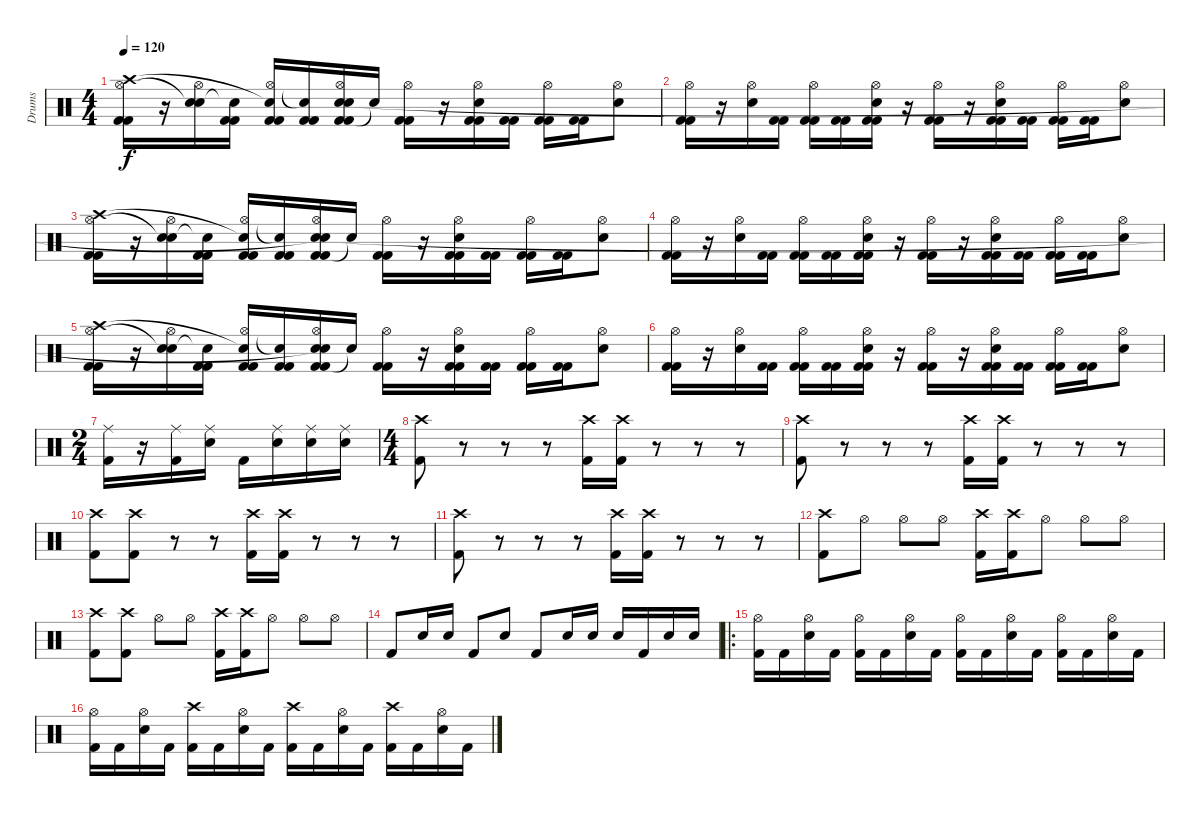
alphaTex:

\track ("Drums" "Drums") {instrument percussion}
\staff {score}
\articulation defaults
\ts (4 4)
\tempo 120
\clef neutral
\ks c
("Kick (hit) 2" "Kick (hit) 2" "Hi-Hat (open)" "Crash high (hit)").16{dy f} r.16 ("Electric Snare (hit)" "Hi-Hat (open)" "Snare (hit)"{t}).16 ("Kick (hit) 2" "Kick (hit) 2" "Snare (hit)"{t}).16 ("Kick (hit) 2" "Kick (hit) 2" "Hi-Hat (open)" "Snare (hit)"{t}).16 ("Kick (hit) 2" "Kick (hit) 2" "Snare (hit)"{t}).16 ("Kick (hit) 2" "Kick (hit) 2" "Electric Snare (hit)" "Hi-Hat (open)" "Snare (hit)"{t}).16 "Snare (hit)"{t}.16 ("Kick (hit) 2" "Kick (hit) 2" "Hi-Hat (open)").16 r.16 ("Kick (hit) 2" "Kick (hit) 2" "Electric Snare (hit)" "Hi-Hat (open)").16 ("Kick (hit) 2" "Kick (hit) 2").16 ("Kick (hit) 2" "Kick (hit) 2" "Hi-Hat (open)").16 ("Kick (hit) 2" "Kick (hit) 2").16 ("Electric Snare (hit)" "Hi-Hat (open)").8 |
("Kick (hit) 2" "Kick (hit) 2" "Hi-Hat (open)").16 r.16 ("Electric Snare (hit)" "Hi-Hat (open)").16 ("Kick (hit) 2" "Kick (hit) 2").16 ("Kick (hit) 2" "Kick (hit) 2" "Hi-Hat (open)").16 ("Kick (hit) 2" "Kick (hit) 2").16 ("Kick (hit) 2" "Kick (hit) 2" "Electric Snare (hit)" "Hi-Hat (open)").16 r.16 ("Kick (hit) 2" "Kick (hit) 2" "Hi-Hat (open)").16 r.16 ("Kick (hit) 2" "Kick (hit) 2" "Electric Snare (hit)" "Hi-Hat (open)").16 ("Kick (hit) 2" "Kick (hit) 2").16 ("Kick (hit) 2" "Kick (hit) 2" "Hi-Hat (open)").16 ("Kick (hit) 2" "Kick (hit) 2").16 ("Electric Snare (hit)" "Hi-Hat (open)").8 |
("Kick (hit) 2" "Kick (hit) 2" "Hi-Hat (open)" "Crash high (hit)").16 r.16 ("Electric Snare (hit)" "Hi-Hat (open)" "Snare (hit)"{t}).16 ("Kick (hit) 2" "Kick (hit) 2" "Snare (hit)"{t}).16 ("Kick (hit) 2" "Kick (hit) 2" "Hi-Hat (open)" "Snare (hit)"{t}).16 ("Kick (hit) 2" "Kick (hit) 2" "Snare (hit)"{t}).16 ("Kick (hit) 2" "Kick (hit) 2" "Electric Snare (hit)" "Hi-Hat (open)" "Snare (hit)"{t}).16 "Snare (hit)"{t}.16 ("Kick (hit) 2" "Kick (hit) 2" "Hi-Hat (open)").16 r.16 ("Kick (hit) 2" "Kick (hit) 2" "Electric Snare (hit)" "Hi-Hat (open)").16 ("Kick (hit) 2" "Kick (hit) 2").16 ("Kick (hit) 2" "Kick (hit) 2" "Hi-Hat (open)").16 ("Kick (hit) 2" "Kick (hit) 2").16 ("Electric Snare (hit)" "Hi-Hat (open)").8 |
("Kick (hit) 2" "Kick (hit) 2" "Hi-Hat (open)").16 r.16 ("Electric Snare (hit)" "Hi-Hat (open)").16 ("Kick (hit) 2" "Kick (hit) 2").16 ("Kick (hit) 2" "Kick (hit) 2" "Hi-Hat (open)").16 ("Kick (hit) 2" "Kick (hit) 2").16 ("Kick (hit) 2" "Kick (hit) 2" "Electric Snare (hit)" "Hi-Hat (open)").16 r.16 ("Kick (hit) 2" "Kick (hit) 2" "Hi-Hat (open)").16 r.16 ("Kick (hit) 2" "Kick (hit) 2" "Electric Snare (hit)" "Hi-Hat (open)").16 ("Kick (hit) 2" "Kick (hit) 2").16 ("Kick (hit) 2" "Kick (hit) 2" "Hi-Hat (open)").16 ("Kick (hit) 2" "Kick (hit) 2").16 ("Electric Snare (hit)" "Hi-Hat (open)").8 |
("Kick (hit) 2" "Kick (hit) 2" "Hi-Hat (open)" "Crash high (hit)").16 r.16 ("Electric Snare (hit)" "Hi-Hat (open)" "Snare (hit)"{t}).16 ("Kick (hit) 2" "Kick (hit) 2" "Snare (hit)"{t}).16 ("Kick (hit) 2" "Kick (hit) 2" "Hi-Hat (open)" "Snare (hit)"{t}).16 ("Kick (hit) 2" "Kick (hit) 2" "Snare (hit)"{t}).16 ("Kick (hit) 2" "Kick (hit) 2" "Electric Snare (hit)" "Hi-Hat (open)" "Snare (hit)"{t}).16 "Snare (hit)"{t}.16 ("Kick (hit) 2" "Kick (hit) 2" "Hi-Hat (open)").16 r.16 ("Kick (hit) 2" "Kick (hit) 2" "Electric Snare (hit)" "Hi-Hat (open)").16 ("Kick (hit) 2" "Kick (hit) 2").16 ("Kick (hit) 2" "Kick (hit) 2" "Hi-Hat (open)").16 ("Kick (hit) 2" "Kick (hit) 2").16 ("Electric Snare (hit)" "Hi-Hat (open)").8 |
("Kick (hit) 2" "Kick (hit) 2" "Hi-Hat (open)").16 r.16 ("Electric Snare (hit)" "Hi-Hat (open)").16 ("Kick (hit) 2" "Kick (hit) 2").16 ("Kick (hit) 2" "Kick (hit) 2" "Hi-Hat (open)").16 ("Kick (hit) 2" "Kick (hit) 2").16 ("Kick (hit) 2" "Kick (hit) 2" "Electric Snare (hit)" "Hi-Hat (open)").16 r.16 ("Kick (hit) 2" "Kick (hit) 2" "Hi-Hat (open)").16 r.16 ("Kick (hit) 2" "Kick (hit) 2" "Electric Snare (hit)" "Hi-Hat (open)").16 ("Kick (hit) 2" "Kick (hit) 2").16 ("Kick (hit) 2" "Kick (hit) 2" "Hi-Hat (open)").16 ("Kick (hit) 2" "Kick (hit) 2").16 ("Electric Snare (hit)" "Hi-Hat (open)").8 |
\ts (2 4)
("Ride (middle)" "Kick (hit) 2").16 r.16 ("Ride (middle)" "Kick (hit) 2").16 ("Ride (middle)" "Snare (hit) 2").16 "Kick (hit) 2".16 ("Ride (middle)" "Snare (hit) 2").16 ("Ride (middle)" "Snare (hit) 2").16 ("Ride (middle)" "Snare (hit) 2").16 |
\ts (4 4)
("Crash high (hit)" "Kick (hit) 2").8 r.8 r.8 r.8 ("Crash high (hit)" "Kick (hit) 2").16 ("Crash high (hit)" "Kick (hit) 2").16 r.8 r.8 r.8 |
("Crash high (hit)" "Kick (hit) 2").8 r.8 r.8 r.8 ("Crash high (hit)" "Kick (hit) 2").16 ("Crash high (hit)" "Kick (hit) 2").16 r.8 r.8 r.8 |
("Crash high (hit)" "Kick (hit) 2").8 ("Crash high (hit)" "Kick (hit) 2").8 r.8 r.8 ("Crash high (hit)" "Kick (hit) 2").16 ("Crash high (hit)" "Kick (hit) 2").16 r.8 r.8 r.8 |
("Crash high (hit)" "Kick (hit) 2").8 r.8 r.8 r.8 ("Crash high (hit)" "Kick (hit) 2").16 ("Crash high (hit)" "Kick (hit) 2").16 r.8 r.8 r.8 |
("Crash high (hit)" "Kick (hit) 2").8 "Hi-Hat (open)".8 "Hi-Hat (open)".8 "Hi-Hat (open)".8 ("Crash high (hit)" "Kick (hit) 2").16 ("Crash high (hit)" "Kick (hit) 2").16 "Hi-Hat (open)".8 "Hi-Hat (open)".8 "Hi-Hat (open)".8 |
("Crash high (hit)" "Kick (hit) 2").8 ("Crash high (hit)" "Kick (hit) 2").8 "Hi-Hat (open)".8 "Hi-Hat (open)".8 ("Crash high (hit)" "Kick (hit) 2").16 ("Crash high (hit)" "Kick (hit) 2").16 "Hi-Hat (open)".8 "Hi-Hat (open)".8 "Hi-Hat (open)".8 |
"Kick (hit) 2".8 "Snare (hit) 2".16 "Snare (hit) 2".16 "Kick (hit) 2".8 "Snare (hit) 2".8 "Kick (hit) 2".8 "Snare (hit) 2".16 "Snare (hit) 2".16 "Snare (hit) 2".16 "Kick (hit) 2".16 "Snare (hit) 2".16 "Snare (hit) 2".16 |
\ro
("Hi-Hat (open)" "Kick (hit) 2").16 "Kick (hit) 2".16 ("Hi-Hat (open)" "Snare (hit) 2").16 "Kick (hit) 2".16 ("Hi-Hat (open)" "Kick (hit) 2").16 "Kick (hit) 2".16 ("Hi-Hat (open)" "Snare (hit) 2").16 "Kick (hit) 2".16 ("Hi-Hat (open)" "Kick (hit) 2").16 "Kick (hit) 2".16 ("Hi-Hat (open)" "Snare (hit) 2").16 "Kick (hit) 2".16 ("Hi-Hat (open)" "Kick (hit) 2").16 "Kick (hit) 2".16 ("Hi-Hat (open)" "Snare (hit) 2").16 "Kick (hit) 2".16 |
("Hi-Hat (open)" "Kick (hit) 2").16 "Kick (hit) 2".16 ("Hi-Hat (open)" "Snare (hit) 2").16 "Kick (hit) 2".16 ("Crash high (hit)" "Kick (hit) 2").16 "Kick (hit) 2".16 ("Hi-Hat (open)" "Snare (hit) 2").16 "Kick (hit) 2".16 ("Crash high (hit)" "Kick (hit) 2").16 "Kick (hit) 2".16 ("Hi-Hat (open)" "Snare (hit) 2").16 "Kick (hit) 2".16 ("Crash high (hit)" "Kick (hit) 2").16 "Kick (hit) 2".16 ("Hi-Hat (open)" "Snare (hit) 2").16 "Kick (hit) 2".16
